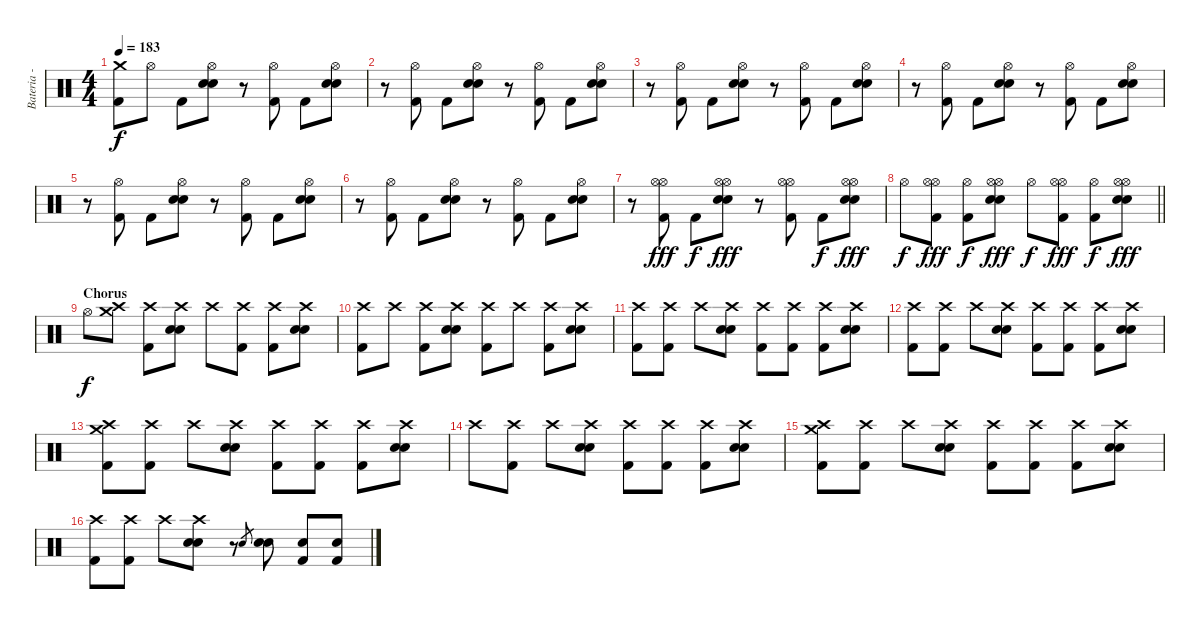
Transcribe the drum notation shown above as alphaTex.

\track ("Bateria - Larzon " "Bateria - ") {instrument percussion}
\staff {score}
\articulation defaults
\ts (4 4)
\tempo 183
\clef neutral
\ks c
("Kick (hit) 2" "Crash medium (hit)").8{dy f} "Hi-Hat (open)".8 "Kick (hit) 2".8 ("Snare (hit) 2" "Snare (hit) 2" "Hi-Hat (open)").8 r.8 ("Kick (hit) 2" "Hi-Hat (open)").8 "Kick (hit) 2".8 ("Snare (hit) 2" "Snare (hit) 2" "Hi-Hat (open)").8 |
r.8 ("Kick (hit) 2" "Hi-Hat (open)").8 "Kick (hit) 2".8 ("Snare (hit) 2" "Snare (hit) 2" "Hi-Hat (open)").8 r.8 ("Kick (hit) 2" "Hi-Hat (open)").8 "Kick (hit) 2".8 ("Snare (hit) 2" "Snare (hit) 2" "Hi-Hat (open)").8 |
r.8 ("Kick (hit) 2" "Hi-Hat (open)").8 "Kick (hit) 2".8 ("Snare (hit) 2" "Snare (hit) 2" "Hi-Hat (open)").8 r.8 ("Kick (hit) 2" "Hi-Hat (open)").8 "Kick (hit) 2".8 ("Snare (hit) 2" "Snare (hit) 2" "Hi-Hat (open)").8 |
r.8 ("Kick (hit) 2" "Hi-Hat (open)").8 "Kick (hit) 2".8 ("Snare (hit) 2" "Snare (hit) 2" "Hi-Hat (open)").8 r.8 ("Kick (hit) 2" "Hi-Hat (open)").8 "Kick (hit) 2".8 ("Snare (hit) 2" "Snare (hit) 2" "Hi-Hat (open)").8 |
r.8 ("Kick (hit) 2" "Hi-Hat (open)").8 "Kick (hit) 2".8 ("Snare (hit) 2" "Snare (hit) 2" "Hi-Hat (open)").8 r.8 ("Kick (hit) 2" "Hi-Hat (open)").8 "Kick (hit) 2".8 ("Snare (hit) 2" "Snare (hit) 2" "Hi-Hat (open)").8 |
r.8 ("Kick (hit) 2" "Hi-Hat (open)").8 "Kick (hit) 2".8 ("Snare (hit) 2" "Snare (hit) 2" "Hi-Hat (open)").8 r.8 ("Kick (hit) 2" "Hi-Hat (open)").8 "Kick (hit) 2".8 ("Snare (hit) 2" "Snare (hit) 2" "Hi-Hat (open)").8 |
r.8 ("Kick (hit) 2" "Hi-Hat (open)" "Hi-Hat (open)").8{dy fff} "Kick (hit) 2".8{dy f} ("Snare (hit) 2" "Snare (hit) 2" "Hi-Hat (open)" "Hi-Hat (open)").8{dy fff} r.8 ("Kick (hit) 2" "Hi-Hat (open)" "Hi-Hat (open)").8 "Kick (hit) 2".8{dy f} ("Snare (hit) 2" "Snare (hit) 2" "Hi-Hat (open)" "Hi-Hat (open)").8{dy fff} |
\barLineRight lightlight "Hi-Hat (open)".8{dy f}
("Kick (hit) 2" "Hi-Hat (open)" "Hi-Hat (open)").8{dy fff} ("Kick (hit) 2" "Hi-Hat (open)").8{dy f} ("Snare (hit) 2" "Snare (hit) 2" "Hi-Hat (open)" "Hi-Hat (open)").8{dy fff} "Hi-Hat (open)".8{dy f} ("Kick (hit) 2" "Hi-Hat (open)" "Hi-Hat (open)").8{dy fff} ("Kick (hit) 2" "Hi-Hat (open)").8{dy f} ("Snare (hit) 2" "Snare (hit) 2" "Hi-Hat (open)" "Hi-Hat (open)").8{dy fff} |
\section ("" "Chorus")
"Hi-Hat (open)".8{dy f} ("Crash medium (hit)" "Crash high (hit)").8 ("Kick (hit) 2" "Crash high (hit)").8 ("Snare (hit) 2" "Snare (hit) 2" "Crash high (hit)").8 "Crash high (hit)".8 ("Kick (hit) 2" "Crash high (hit)").8 ("Kick (hit) 2" "Crash high (hit)").8 ("Snare (hit) 2" "Snare (hit) 2" "Crash high (hit)").8 |
("Kick (hit) 2" "Crash high (hit)").8 "Crash high (hit)".8 ("Kick (hit) 2" "Crash high (hit)").8 ("Snare (hit) 2" "Snare (hit) 2" "Crash high (hit)").8 ("Kick (hit) 2" "Crash high (hit)").8 "Crash high (hit)".8 ("Kick (hit) 2" "Crash high (hit)").8 ("Snare (hit) 2" "Snare (hit) 2" "Crash high (hit)").8 |
("Kick (hit) 2" "Crash high (hit)").8 ("Kick (hit) 2" "Crash high (hit)").8 "Crash high (hit)".8 ("Snare (hit) 2" "Snare (hit) 2" "Crash high (hit)").8 ("Kick (hit) 2" "Crash high (hit)").8 ("Kick (hit) 2" "Crash high (hit)").8 ("Kick (hit) 2" "Crash high (hit)").8 ("Snare (hit) 2" "Snare (hit) 2" "Crash high (hit)").8 |
("Kick (hit) 2" "Crash high (hit)").8 ("Kick (hit) 2" "Crash high (hit)").8 "Crash high (hit)".8 ("Snare (hit) 2" "Snare (hit) 2" "Crash high (hit)").8 ("Kick (hit) 2" "Crash high (hit)").8 ("Kick (hit) 2" "Crash high (hit)").8 ("Kick (hit) 2" "Crash high (hit)").8 ("Snare (hit) 2" "Snare (hit) 2" "Crash high (hit)").8 |
("Kick (hit) 2" "Crash medium (hit)" "Crash high (hit)").8 ("Kick (hit) 2" "Crash high (hit)").8 "Crash high (hit)".8 ("Snare (hit) 2" "Snare (hit) 2" "Crash high (hit)").8 ("Kick (hit) 2" "Crash high (hit)").8 ("Kick (hit) 2" "Crash high (hit)").8 ("Kick (hit) 2" "Crash high (hit)").8 ("Snare (hit) 2" "Snare (hit) 2" "Crash high (hit)").8 |
"Crash high (hit)".8 ("Kick (hit) 2" "Crash high (hit)").8 "Crash high (hit)".8 ("Snare (hit) 2" "Snare (hit) 2" "Crash high (hit)").8 ("Kick (hit) 2" "Crash high (hit)").8 ("Kick (hit) 2" "Crash high (hit)").8 ("Kick (hit) 2" "Crash high (hit)").8 ("Snare (hit) 2" "Snare (hit) 2" "Crash high (hit)").8 |
("Kick (hit) 2" "Crash medium (hit)" "Crash high (hit)").8 ("Kick (hit) 2" "Crash high (hit)").8 "Crash high (hit)".8 ("Snare (hit) 2" "Snare (hit) 2" "Crash high (hit)").8 ("Kick (hit) 2" "Crash high (hit)").8 ("Kick (hit) 2" "Crash high (hit)").8 ("Kick (hit) 2" "Crash high (hit)").8 ("Snare (hit) 2" "Snare (hit) 2" "Crash high (hit)").8 |
("Kick (hit) 2" "Crash high (hit)").8 ("Kick (hit) 2" "Crash high (hit)").8 "Crash high (hit)".8 ("Snare (hit) 2" "Snare (hit) 2" "Crash high (hit)").8 r.8 "Snare (hit) 2".8{gr} ("Snare (hit) 2" "Snare (hit) 2").8 ("Snare (hit) 2" "Kick (hit) 2").8 ("Snare (hit) 2" "Kick (hit) 2").8
